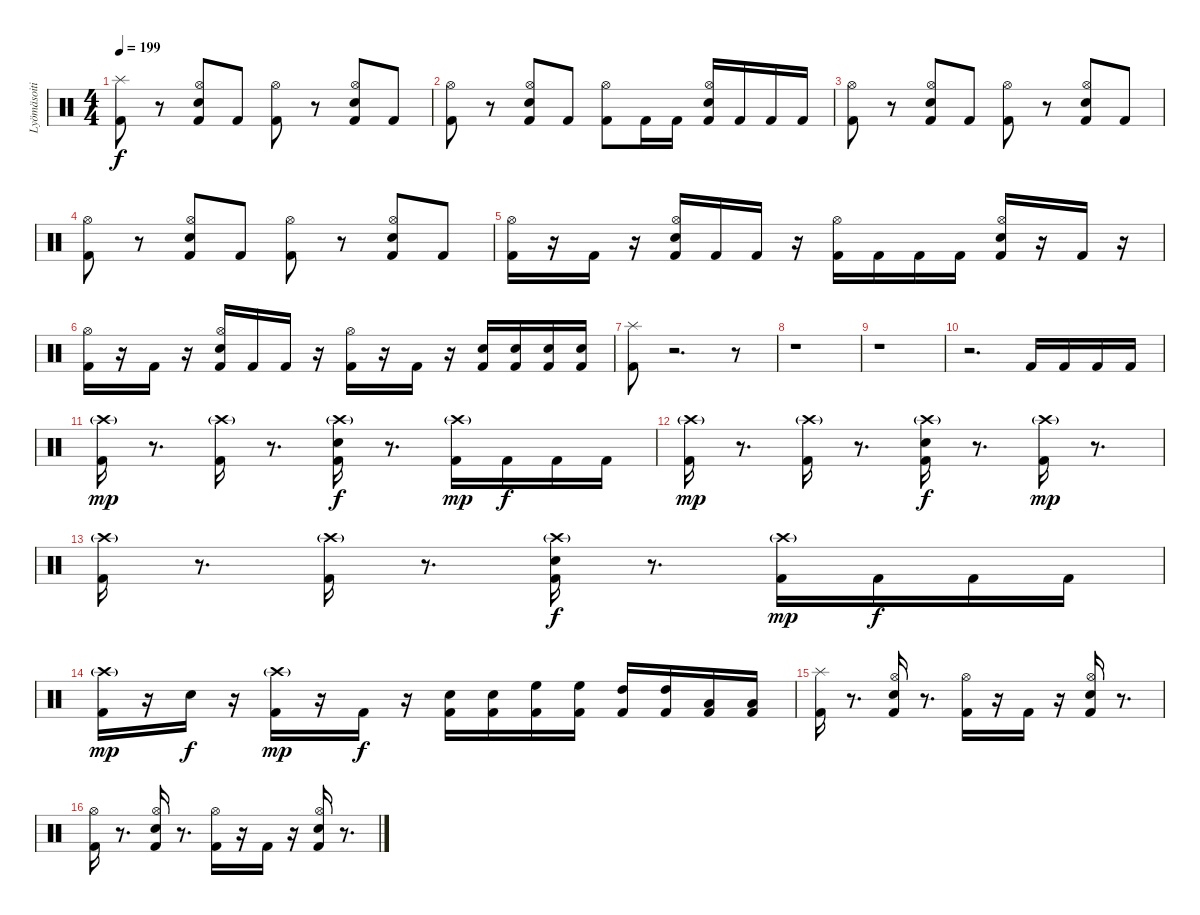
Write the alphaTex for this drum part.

\track ("Lyömäsoitin" "Lyömäsoiti") {instrument percussion}
\staff {score}
\articulation defaults
\ts (4 4)
\tempo 199
\clef neutral
\ks c
("Kick (hit) 2" "Splash (hit)").8{dy f} r.8 ("Kick (hit) 2" "Hi-Hat (open)" "Snare (hit) 2").8 "Kick (hit) 2".8 ("Kick (hit) 2" "Hi-Hat (open)").8 r.8 ("Kick (hit) 2" "Hi-Hat (open)" "Snare (hit) 2").8 "Kick (hit) 2".8 |
("Kick (hit) 2" "Hi-Hat (open)").8 r.8 ("Kick (hit) 2" "Hi-Hat (open)" "Snare (hit) 2").8 "Kick (hit) 2".8 ("Kick (hit) 2" "Hi-Hat (open)").8 "Kick (hit) 2".16 "Kick (hit) 2".16 ("Kick (hit) 2" "Hi-Hat (open)" "Snare (hit) 2").16 "Kick (hit) 2".16 "Kick (hit) 2".16 "Kick (hit) 2".16 |
("Kick (hit) 2" "Hi-Hat (open)").8 r.8 ("Kick (hit) 2" "Hi-Hat (open)" "Snare (hit) 2").8 "Kick (hit) 2".8 ("Kick (hit) 2" "Hi-Hat (open)").8 r.8 ("Kick (hit) 2" "Hi-Hat (open)" "Snare (hit) 2").8 "Kick (hit) 2".8 |
("Kick (hit) 2" "Hi-Hat (open)").8 r.8 ("Kick (hit) 2" "Hi-Hat (open)" "Snare (hit) 2").8 "Kick (hit) 2".8 ("Kick (hit) 2" "Hi-Hat (open)").8 r.8 ("Kick (hit) 2" "Hi-Hat (open)" "Snare (hit) 2").8 "Kick (hit) 2".8 |
("Kick (hit) 2" "Hi-Hat (open)").16 r.16 "Kick (hit) 2".16 r.16 ("Kick (hit) 2" "Snare (hit) 2" "Hi-Hat (open)").16 "Kick (hit) 2".16 "Kick (hit) 2".16 r.16 ("Kick (hit) 2" "Hi-Hat (open)").16 "Kick (hit) 2".16 "Kick (hit) 2".16 "Kick (hit) 2".16 ("Kick (hit) 2" "Snare (hit) 2" "Hi-Hat (open)").16 r.16 "Kick (hit) 2".16 r.16 |
("Kick (hit) 2" "Hi-Hat (open)").16 r.16 "Kick (hit) 2".16 r.16 ("Kick (hit) 2" "Snare (hit) 2" "Hi-Hat (open)").16 "Kick (hit) 2".16 "Kick (hit) 2".16 r.16 ("Kick (hit) 2" "Hi-Hat (open)").16 r.16 "Kick (hit) 2".16 r.16 ("Kick (hit) 2" "Snare (hit) 2").16 ("Kick (hit) 2" "Snare (hit) 2").16 ("Kick (hit) 2" "Snare (hit) 2").16 ("Kick (hit) 2" "Snare (hit) 2").16 |
("Kick (hit) 2" "Splash (hit)").8 r.2{d} r.8 |
r.1 |
r.1 |
r.2{d} "Kick (hit) 2".16 "Kick (hit) 2".16 "Kick (hit) 2".16 "Kick (hit) 2".16 |
("Kick (hit) 2" "Crash high (hit)"{g}).16{dy mp} r.8{d} ("Kick (hit) 2" "Crash high (hit)"{g}).16 r.8{d} ("Kick (hit) 2" "Crash high (hit)"{g} "Snare (hit) 2").16{dy f} r.8{d} ("Kick (hit) 2" "Crash high (hit)"{g}).16{dy mp} "Kick (hit) 2".16{dy f} "Kick (hit) 2".16 "Kick (hit) 2".16 |
("Kick (hit) 2" "Crash high (hit)"{g}).16{dy mp} r.8{d} ("Kick (hit) 2" "Crash high (hit)"{g}).16 r.8{d} ("Kick (hit) 2" "Crash high (hit)"{g} "Snare (hit) 2").16{dy f} r.8{d} ("Kick (hit) 2" "Crash high (hit)"{g}).16{dy mp} r.8{d} |
("Kick (hit) 2" "Crash high (hit)"{g}).16 r.8{d} ("Kick (hit) 2" "Crash high (hit)"{g}).16 r.8{d} ("Kick (hit) 2" "Crash high (hit)"{g} "Snare (hit) 2").16{dy f} r.8{d} ("Kick (hit) 2" "Crash high (hit)"{g}).16{dy mp} "Kick (hit) 2".16{dy f} "Kick (hit) 2".16 "Kick (hit) 2".16 |
("Kick (hit) 2" "Crash high (hit)"{g}).16{dy mp} r.16 "Snare (hit) 2".16{dy f} r.16 ("Kick (hit) 2" "Crash high (hit)"{g}).16{dy mp} r.16 "Kick (hit) 2".16{dy f} r.16 ("Kick (hit) 2" "Snare (hit) 2").16 ("Kick (hit) 2" "Snare (hit) 2").16 ("Kick (hit) 2" "High Floor Tom (hit)").16 ("Kick (hit) 2" "High Floor Tom (hit)").16 ("Kick (hit) 2" "High Tom (hit)").16 ("Kick (hit) 2" "High Tom (hit)").16 ("Kick (hit) 2" "Low Tom (hit)").16 ("Kick (hit) 2" "Low Tom (hit)").16 |
("Kick (hit) 2" "Splash (hit)").16 r.8{d} ("Kick (hit) 2" "Hi-Hat (open)" "Snare (hit) 2").16 r.8{d} ("Kick (hit) 2" "Hi-Hat (open)").16 r.16 "Kick (hit) 2".16 r.16 ("Kick (hit) 2" "Hi-Hat (open)" "Snare (hit) 2").16 r.8{d} |
("Kick (hit) 2" "Hi-Hat (open)").16 r.8{d} ("Kick (hit) 2" "Hi-Hat (open)" "Snare (hit) 2").16 r.8{d} ("Kick (hit) 2" "Hi-Hat (open)").16 r.16 "Kick (hit) 2".16 r.16 ("Kick (hit) 2" "Hi-Hat (open)" "Snare (hit) 2").16 r.8{d}
